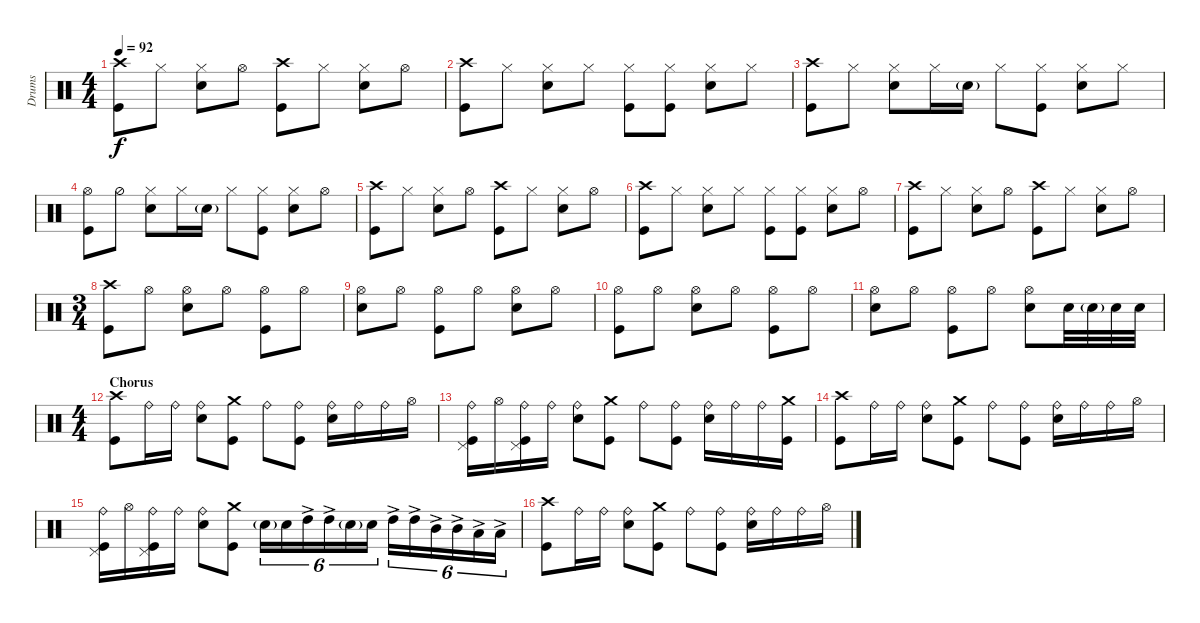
\track ("Drums" "Drums") {instrument percussion}
\staff {score}
\articulation defaults
\ts (4 4)
\tempo 92
\clef neutral
\ks c
("Kick (hit)" "Crash high (hit)").8{dy f} "Hi-Hat (closed)".8 ("Hi-Hat (closed)" "Snare (hit) 2").8 "Hi-Hat (open)".8 ("Kick (hit)" "Crash high (hit)").8 "Hi-Hat (closed)".8 ("Hi-Hat (closed)" "Snare (hit) 2").8 "Hi-Hat (open)".8 |
("Kick (hit)" "Crash high (hit)").8 "Hi-Hat (closed)".8 ("Hi-Hat (closed)" "Snare (hit) 2").8 "Hi-Hat (closed)".8 ("Kick (hit)" "Hi-Hat (closed)").8 ("Hi-Hat (closed)" "Kick (hit)").8 ("Hi-Hat (closed)" "Snare (hit) 2").8 "Hi-Hat (closed)".8 |
("Kick (hit)" "Crash high (hit)").8 "Hi-Hat (closed)".8 ("Hi-Hat (closed)" "Snare (hit) 2").8 "Hi-Hat (closed)".16 "Snare (hit) 2"{g}.16 "Hi-Hat (closed)".8 ("Hi-Hat (closed)" "Kick (hit)").8 ("Hi-Hat (closed)" "Snare (hit) 2").8 "Hi-Hat (closed)".8 |
("Kick (hit)" "Hi-Hat (open)").8 "Hi-Hat (half)".8 ("Hi-Hat (closed)" "Snare (hit) 2").8 "Hi-Hat (closed)".16 "Snare (hit) 2"{g}.16 "Hi-Hat (closed)".8 ("Hi-Hat (closed)" "Kick (hit)").8 ("Hi-Hat (closed)" "Snare (hit) 2").8 "Hi-Hat (open)".8 |
("Kick (hit)" "Crash high (hit)").8 "Hi-Hat (closed)".8 ("Hi-Hat (closed)" "Snare (hit) 2").8 "Hi-Hat (open)".8 ("Kick (hit)" "Crash high (hit)").8 "Hi-Hat (closed)".8 ("Hi-Hat (closed)" "Snare (hit) 2").8 "Hi-Hat (open)".8 |
("Kick (hit)" "Crash high (hit)").8 "Hi-Hat (closed)".8 ("Hi-Hat (closed)" "Snare (hit) 2").8 "Hi-Hat (closed)".8 ("Kick (hit)" "Hi-Hat (closed)").8 ("Hi-Hat (closed)" "Kick (hit)").8 ("Hi-Hat (closed)" "Snare (hit) 2").8 "Hi-Hat (open)".8 |
("Kick (hit)" "Crash high (hit)").8 "Hi-Hat (closed)".8 ("Hi-Hat (closed)" "Snare (hit) 2").8 "Hi-Hat (open)".8 ("Kick (hit)" "Crash high (hit)").8 "Hi-Hat (closed)".8 ("Hi-Hat (closed)" "Snare (hit) 2").8 "Hi-Hat (open)".8 |
\ts (3 4)
("Kick (hit)" "Crash high (hit)").8 "Hi-Hat (open)".8 ("Hi-Hat (open)" "Snare (hit) 2").8 "Hi-Hat (open)".8 ("Hi-Hat (open)" "Kick (hit)").8 "Hi-Hat (open)".8 |
("Hi-Hat (open)" "Snare (hit) 2").8 "Hi-Hat (open)".8 ("Hi-Hat (open)" "Kick (hit)").8 "Hi-Hat (open)".8 ("Hi-Hat (open)" "Snare (hit) 2").8 "Hi-Hat (open)".8 |
("Kick (hit)" "Hi-Hat (open)").8 "Hi-Hat (open)".8 ("Hi-Hat (open)" "Snare (hit) 2").8 "Hi-Hat (open)".8 ("Hi-Hat (open)" "Kick (hit)").8 "Hi-Hat (open)".8 |
("Hi-Hat (open)" "Snare (hit) 2").8 "Hi-Hat (open)".8 ("Hi-Hat (open)" "Kick (hit)").8 "Hi-Hat (open)".8 ("Hi-Hat (open)" "Snare (hit) 2").8 "Snare (hit) 2".32 "Snare (hit) 2"{g}.32 "Snare (hit) 2".32 "Snare (hit) 2".32 |
\ts (4 4)
\section ("" "Chorus")
("Kick (hit)" "Crash high (hit)").8 "Ride (bell)".16 "Ride (bell)".16 ("Ride (bell)" "Snare (hit) 2").8 ("Crash medium (hit)" "Kick (hit)").8 "Ride (bell)".8 ("Ride (bell)" "Kick (hit)").8 ("Ride (bell)" "Snare (hit) 2").16 "Ride (bell)".16 "Ride (bell)".16 "Hi-Hat (open)".16 |
("Ride (bell)" "Pedal Hi-Hat (hit)" "Kick (hit)").16 "Hi-Hat (open)".16 ("Ride (bell)" "Pedal Hi-Hat (hit)" "Kick (hit)").16 "Ride (bell)".16 ("Snare (hit) 2" "Ride (bell)").8 ("Crash medium (hit)" "Kick (hit)").8 "Ride (bell)".8 ("Ride (bell)" "Kick (hit)").8 ("Snare (hit) 2" "Ride (bell)").16 "Ride (bell)".16 "Ride (bell)".16 ("Crash medium (hit)" "Kick (hit)").16 |
("Kick (hit)" "Crash high (hit)").8 "Ride (bell)".16 "Ride (bell)".16 ("Ride (bell)" "Snare (hit) 2").8 ("Crash medium (hit)" "Kick (hit)").8 "Ride (bell)".8 ("Ride (bell)" "Kick (hit)").8 ("Ride (bell)" "Snare (hit) 2").16 "Ride (bell)".16 "Ride (bell)".16 "Hi-Hat (open)".16 |
("Ride (bell)" "Pedal Hi-Hat (hit)" "Kick (hit)").16 "Hi-Hat (open)".16 ("Ride (bell)" "Pedal Hi-Hat (hit)" "Kick (hit)").16 "Ride (bell)".16 ("Snare (hit) 2" "Ride (bell)").8 ("Crash medium (hit)" "Kick (hit)").8 "Snare (hit) 2"{g}.16{tu (6 4)} "Snare (hit) 2".16{tu (6 4)} "High Tom (hit)"{ac}.16{tu (6 4)} "High Tom (hit)"{ac}.16{tu (6 4)} "Snare (hit) 2"{g}.16{tu (6 4)} "Snare (hit) 2".16{tu (6 4)} "High Tom (hit)"{ac}.16{tu (6 4)} "High Tom (hit)"{ac}.16{tu (6 4)} "Mid Tom (hit)"{ac}.16{tu (6 4)} "Mid Tom (hit)"{ac}.16{tu (6 4)} "Low Tom (hit)"{ac}.16{tu (6 4)} "Low Tom (hit)"{ac}.16{tu (6 4)} |
("Kick (hit)" "Crash high (hit)").8 "Ride (bell)".16 "Ride (bell)".16 ("Ride (bell)" "Snare (hit) 2").8 ("Crash medium (hit)" "Kick (hit)").8 "Ride (bell)".8 ("Ride (bell)" "Kick (hit)").8 ("Ride (bell)" "Snare (hit) 2").16 "Ride (bell)".16 "Ride (bell)".16 "Hi-Hat (open)".16
